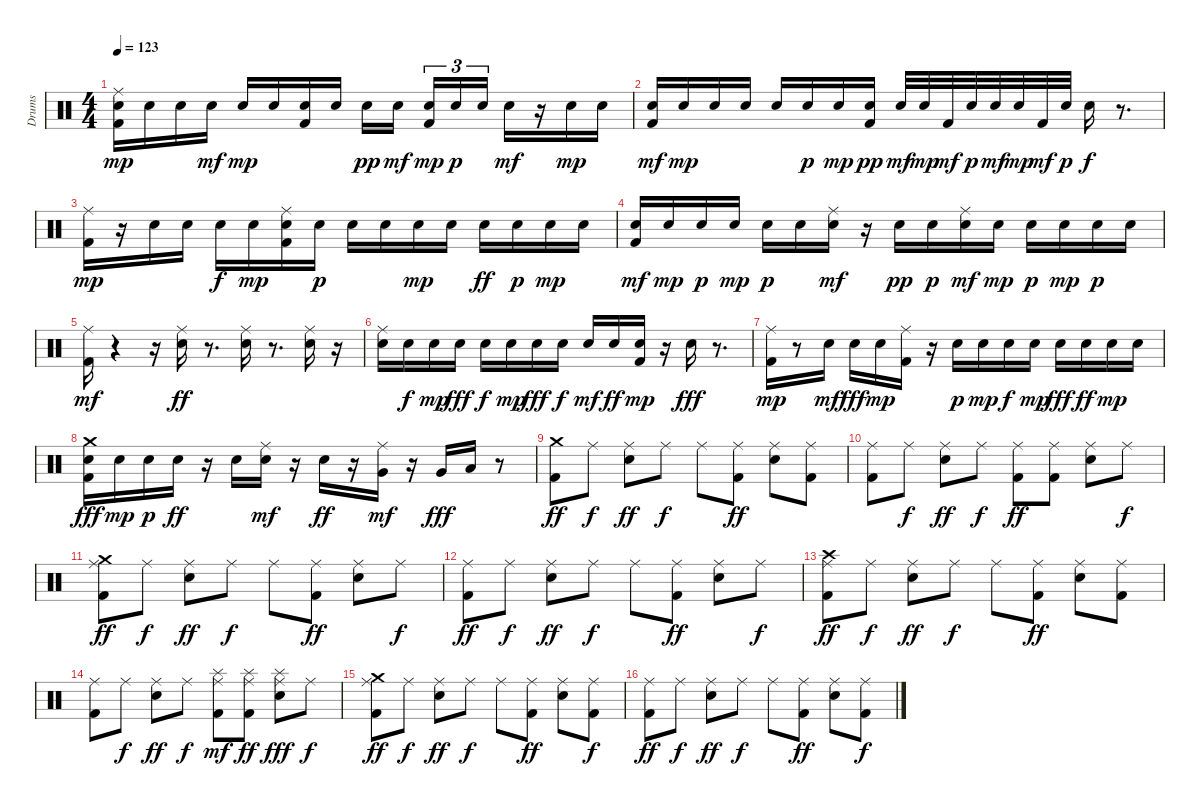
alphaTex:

\track ("Drums" "Drums") {instrument percussion}
\staff {score}
\articulation defaults
\ts (4 4)
\tempo 123
\clef neutral
\ks c
("Kick (hit) 2" "Electric Snare (hit)" "Ride (middle)").16{dy mp} "Electric Snare (hit)".16 "Electric Snare (hit)".16 "Electric Snare (hit)".16{dy mf} "Electric Snare (hit)".16{dy mp} "Electric Snare (hit)".16 ("Kick (hit) 2" "Electric Snare (hit)").16 "Electric Snare (hit)".16 "Electric Snare (hit)".16{dy pp} "Electric Snare (hit)".16{dy mf} ("Kick (hit) 2" "Electric Snare (hit)").16{tu (3 2) dy mp} "Electric Snare (hit)".16{tu (3 2) dy p} "Electric Snare (hit)".16{tu (3 2)} "Electric Snare (hit)".16{dy mf} r.16 "Electric Snare (hit)".16{dy mp} "Electric Snare (hit)".16 |
("Kick (hit) 2" "Electric Snare (hit)").16{dy mf} "Electric Snare (hit)".16{dy mp} "Electric Snare (hit)".16 "Electric Snare (hit)".16 "Electric Snare (hit)".16 "Electric Snare (hit)".16{dy p} "Electric Snare (hit)".16{dy mp} ("Kick (hit) 2" "Electric Snare (hit)").16{dy pp} "Electric Snare (hit)".32{dy mf} "Electric Snare (hit)".32{dy mp} "Kick (hit) 2".32{dy mf} "Electric Snare (hit)".32{dy p} "Electric Snare (hit)".32{dy mf} "Electric Snare (hit)".32{dy mp} "Kick (hit) 2".32{dy mf} "Electric Snare (hit)".32{dy p} "Electric Snare (hit)".16{dy f} r.8{d} |
("Kick (hit) 2" "Ride (middle)").16{dy mp} r.16 "Electric Snare (hit)".16 "Electric Snare (hit)".16 "Electric Snare (hit)".16{dy f} "Electric Snare (hit)".16{dy mp} ("Kick (hit) 2" "Electric Snare (hit)" "Ride (middle)").16 "Electric Snare (hit)".16{dy p} "Electric Snare (hit)".16 "Electric Snare (hit)".16 "Electric Snare (hit)".16{dy mp} "Electric Snare (hit)".16 "Electric Snare (hit)".16{dy ff} "Electric Snare (hit)".16{dy p} "Electric Snare (hit)".16{dy mp} "Electric Snare (hit)".16 |
("Kick (hit) 2" "Electric Snare (hit)").16{dy mf} "Electric Snare (hit)".16{dy mp} "Electric Snare (hit)".16{dy p} "Electric Snare (hit)".16{dy mp} "Electric Snare (hit)".16{dy p} "Electric Snare (hit)".16 ("Electric Snare (hit)" "Ride (middle)").16{dy mf} r.16 "Electric Snare (hit)".16{dy pp} "Electric Snare (hit)".16{dy p} ("Electric Snare (hit)" "Ride (middle)").16{dy mf} "Electric Snare (hit)".16{dy mp} "Electric Snare (hit)".16{dy p} "Electric Snare (hit)".16{dy mp} "Electric Snare (hit)".16{dy p} "Electric Snare (hit)".16 |
("Kick (hit) 2" "Ride (middle)").16{dy mf} r.4 r.16 ("Electric Snare (hit)" "Ride (middle)").16{dy ff} r.8{d} ("Electric Snare (hit)" "Ride (middle)").16 r.8{d} ("Electric Snare (hit)" "Ride (middle)").16 r.16 |
("Electric Snare (hit)" "Ride (middle)").16 "Electric Snare (hit)".16{dy f} "Electric Snare (hit)".16{dy mp} "Electric Snare (hit)".16{dy fff} "Electric Snare (hit)".16{dy f} "Electric Snare (hit)".16{dy mp} "Electric Snare (hit)".16{dy fff} "Electric Snare (hit)".16{dy f} "Electric Snare (hit)".16{dy mf} "Electric Snare (hit)".16{dy ff} ("Kick (hit) 2" "Electric Snare (hit)").16{dy mp} r.16 "Electric Snare (hit)".16{dy fff} r.8{d} |
("Kick (hit) 2" "Ride (middle)").16{dy mp} r.8 "Electric Snare (hit)".16{dy mf} "Electric Snare (hit)".16{dy fff} "Electric Snare (hit)".16{dy mp} ("Kick (hit) 2" "Ride (middle)").16 r.16 "Electric Snare (hit)".16{dy p} "Electric Snare (hit)".16{dy mp} "Electric Snare (hit)".16{dy f} "Electric Snare (hit)".16{dy mp} "Electric Snare (hit)".16{dy fff} "Electric Snare (hit)".16{dy ff} "Electric Snare (hit)".16{dy mp} "Electric Snare (hit)".16 |
("Kick (hit) 2" "Electric Snare (hit)" "Crash medium (hit)").16{dy fff} "Electric Snare (hit)".16{dy mp} "Electric Snare (hit)".16{dy p} "Electric Snare (hit)".16{dy ff} r.16 "Electric Snare (hit)".16 ("Electric Snare (hit)" "Ride (middle)").16{dy mf} r.16 "Electric Snare (hit)".16{dy ff} r.16 ("Very Low Tom (hit)" "Ride (middle)").16{dy mf} r.16 "Very Low Tom (hit)".16{dy fff} "Low Floor Tom (hit)".16 r.8 |
("Kick (hit) 2" "Crash medium (hit)").8{dy ff} "Ride (middle)".8{dy f} ("Electric Snare (hit)" "Ride (middle)").8{dy ff} "Ride (middle)".8{dy f} "Ride (middle)".8 ("Kick (hit) 2" "Ride (middle)").8{dy ff} ("Electric Snare (hit)" "Ride (middle)").8 ("Kick (hit) 2" "Ride (middle)").8 |
("Kick (hit) 2" "Ride (middle)").8 "Ride (middle)".8{dy f volume 14} ("Electric Snare (hit)" "Ride (middle)").8{dy ff} "Ride (middle)".8{dy f} ("Kick (hit) 2" "Ride (middle)").8{dy ff} ("Kick (hit) 2" "Ride (middle)").8 ("Electric Snare (hit)" "Ride (middle)").8 "Ride (middle)".8{dy f} |
("Kick (hit) 2" "Crash medium (hit)" "Ride (middle)").8{dy ff} "Ride (middle)".8{dy f} ("Electric Snare (hit)" "Ride (middle)").8{dy ff} "Ride (middle)".8{dy f} "Ride (middle)".8 ("Kick (hit) 2" "Ride (middle)").8{dy ff} ("Electric Snare (hit)" "Ride (middle)").8 "Ride (middle)".8{dy f} |
("Kick (hit) 2" "Ride (middle)").8{dy ff} "Ride (middle)".8{dy f} ("Electric Snare (hit)" "Ride (middle)").8{dy ff} "Ride (middle)".8{dy f} "Ride (middle)".8 ("Kick (hit) 2" "Ride (middle)").8{dy ff} ("Electric Snare (hit)" "Ride (middle)").8 "Ride (middle)".8{dy f} |
("Kick (hit) 2" "Crash high (hit)" "Ride (middle)").8{dy ff} "Ride (middle)".8{dy f} ("Electric Snare (hit)" "Ride (middle)").8{dy ff} "Ride (middle)".8{dy f} "Ride (middle)".8 ("Kick (hit) 2" "Ride (middle)").8{dy ff} ("Electric Snare (hit)" "Ride (middle)").8 ("Kick (hit) 2" "Ride (middle)").8 |
("Kick (hit) 2" "Ride (middle)").8 "Ride (middle)".8{dy f} ("Electric Snare (hit)" "Ride (middle)").8{dy ff} "Ride (middle)".8{dy f} ("Kick (hit) 2" "Splash (hit)" "Ride (middle)").8{dy mf} ("Kick (hit) 2" "Splash (hit)" "Ride (middle)").8{dy ff} ("Electric Snare (hit)" "Splash (hit)" "Ride (middle)").8{dy fff} "Ride (middle)".8{dy f} |
("Kick (hit) 2" "Crash medium (hit)" "Ride (middle)").8{dy ff} "Ride (middle)".8{dy f} ("Electric Snare (hit)" "Ride (middle)").8{dy ff} "Ride (middle)".8{dy f} "Ride (middle)".8 ("Kick (hit) 2" "Ride (middle)").8{dy ff} ("Electric Snare (hit)" "Ride (middle)").8 ("Kick (hit) 2" "Ride (middle)").8{dy f} |
("Kick (hit) 2" "Ride (middle)").8{dy ff} "Ride (middle)".8{dy f} ("Electric Snare (hit)" "Ride (middle)").8{dy ff} "Ride (middle)".8{dy f} "Ride (middle)".8 ("Kick (hit) 2" "Ride (middle)").8{dy ff} ("Electric Snare (hit)" "Ride (middle)").8 ("Kick (hit) 2" "Ride (middle)").8{dy f}
